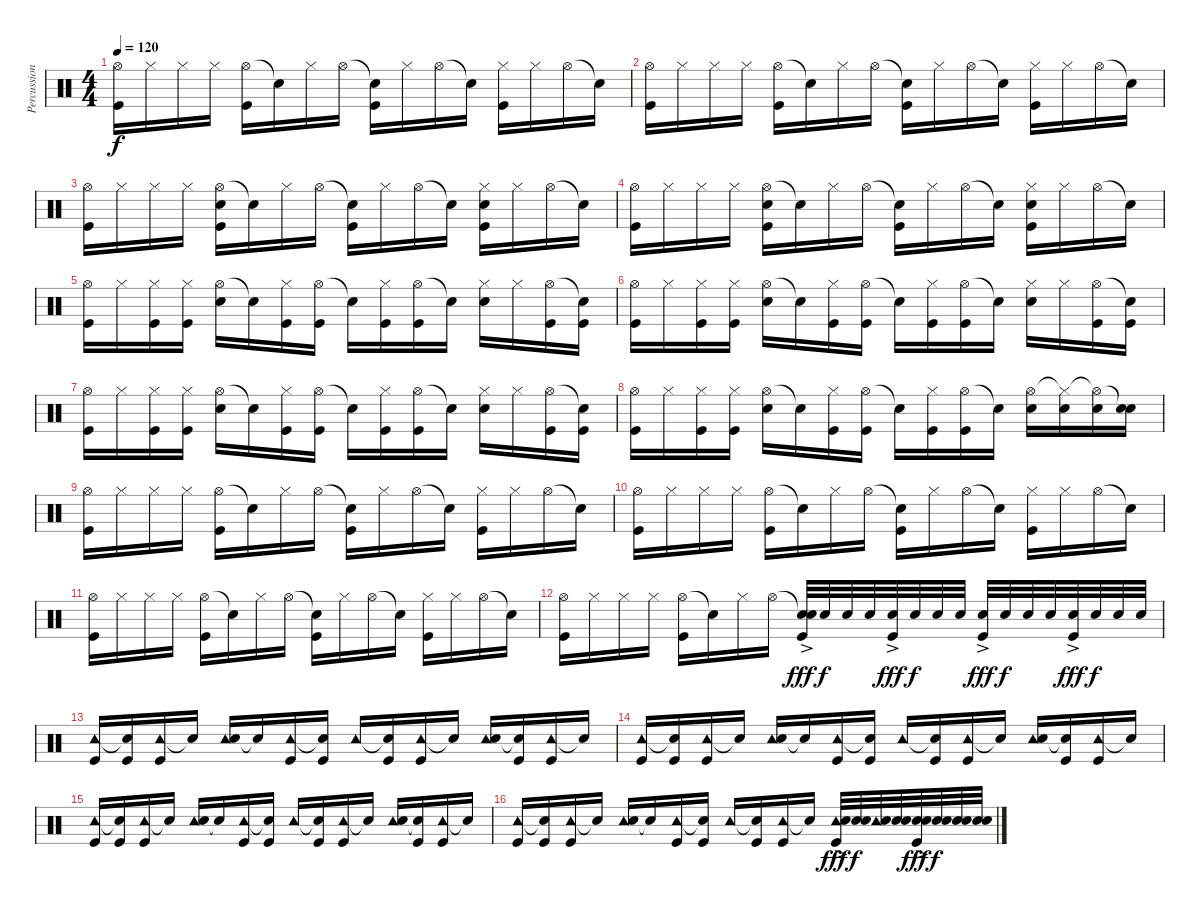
\track ("Percussion" "Percussion") {instrument percussion}
\staff {score}
\articulation defaults
\ts (4 4)
\tempo 120
\clef neutral
\ks c
("Hi-Hat (open)" "Kick (hit)").16{dy f} "Hi-Hat (closed)".16 "Hi-Hat (closed)".16 "Hi-Hat (closed)".16 ("Hi-Hat (open)" "Kick (hit)").16 "Snare (hit)"{t}.16 "Hi-Hat (closed)".16 "Hi-Hat (open)".16 ("Snare (hit)"{t} "Kick (hit)").16 "Hi-Hat (closed)".16 "Hi-Hat (open)".16 "Snare (hit)"{t}.16 ("Hi-Hat (closed)" "Kick (hit)").16 "Hi-Hat (closed)".16 "Hi-Hat (open)".16 "Snare (hit)"{t}.16 |
("Hi-Hat (open)" "Kick (hit)").16 "Hi-Hat (closed)".16 "Hi-Hat (closed)".16 "Hi-Hat (closed)".16 ("Hi-Hat (open)" "Kick (hit)").16 "Snare (hit)"{t}.16 "Hi-Hat (closed)".16 "Hi-Hat (open)".16 ("Snare (hit)"{t} "Kick (hit)").16 "Hi-Hat (closed)".16 "Hi-Hat (open)".16 "Snare (hit)"{t}.16 ("Hi-Hat (closed)" "Kick (hit)").16 "Hi-Hat (closed)".16 "Hi-Hat (open)".16 "Snare (hit)"{t}.16 |
("Hi-Hat (open)" "Kick (hit)").16 "Hi-Hat (closed)".16 "Hi-Hat (closed)".16 "Hi-Hat (closed)".16 ("Hi-Hat (open)" "Electric Snare (hit)" "Kick (hit)").16 "Snare (hit)"{t}.16 "Hi-Hat (closed)".16 "Hi-Hat (open)".16 ("Snare (hit)"{t} "Kick (hit)").16 "Hi-Hat (closed)".16 "Hi-Hat (open)".16 "Snare (hit)"{t}.16 ("Hi-Hat (closed)" "Electric Snare (hit)" "Kick (hit)").16 "Hi-Hat (closed)".16 "Hi-Hat (open)".16 "Snare (hit)"{t}.16 |
("Hi-Hat (open)" "Kick (hit)").16 "Hi-Hat (closed)".16 "Hi-Hat (closed)".16 "Hi-Hat (closed)".16 ("Hi-Hat (open)" "Electric Snare (hit)" "Kick (hit)").16 "Snare (hit)"{t}.16 "Hi-Hat (closed)".16 "Hi-Hat (open)".16 ("Snare (hit)"{t} "Kick (hit)").16 "Hi-Hat (closed)".16 "Hi-Hat (open)".16 "Snare (hit)"{t}.16 ("Hi-Hat (closed)" "Electric Snare (hit)" "Kick (hit)").16 "Hi-Hat (closed)".16 "Hi-Hat (open)".16 "Snare (hit)"{t}.16 |
("Hi-Hat (open)" "Kick (hit)").16 "Hi-Hat (closed)".16 ("Hi-Hat (closed)" "Kick (hit)").16 ("Hi-Hat (closed)" "Kick (hit)").16 ("Hi-Hat (open)" "Electric Snare (hit)").16 "Snare (hit)"{t}.16 ("Hi-Hat (closed)" "Kick (hit)").16 ("Hi-Hat (open)" "Kick (hit)").16 "Snare (hit)"{t}.16 ("Hi-Hat (closed)" "Kick (hit)").16 ("Hi-Hat (open)" "Kick (hit)").16 "Snare (hit)"{t}.16 ("Hi-Hat (closed)" "Electric Snare (hit)").16 "Hi-Hat (closed)".16 ("Hi-Hat (open)" "Kick (hit)").16 ("Snare (hit)"{t} "Kick (hit)").16 |
("Hi-Hat (open)" "Kick (hit)").16 "Hi-Hat (closed)".16 ("Hi-Hat (closed)" "Kick (hit)").16 ("Hi-Hat (closed)" "Kick (hit)").16 ("Hi-Hat (open)" "Electric Snare (hit)").16 "Snare (hit)"{t}.16 ("Hi-Hat (closed)" "Kick (hit)").16 ("Hi-Hat (open)" "Kick (hit)").16 "Snare (hit)"{t}.16 ("Hi-Hat (closed)" "Kick (hit)").16 ("Hi-Hat (open)" "Kick (hit)").16 "Snare (hit)"{t}.16 ("Hi-Hat (closed)" "Electric Snare (hit)").16 "Hi-Hat (closed)".16 ("Hi-Hat (open)" "Kick (hit)").16 ("Snare (hit)"{t} "Kick (hit)").16 |
("Hi-Hat (open)" "Kick (hit)").16 "Hi-Hat (closed)".16 ("Hi-Hat (closed)" "Kick (hit)").16 ("Hi-Hat (closed)" "Kick (hit)").16 ("Hi-Hat (open)" "Electric Snare (hit)").16 "Snare (hit)"{t}.16 ("Hi-Hat (closed)" "Kick (hit)").16 ("Hi-Hat (open)" "Kick (hit)").16 "Snare (hit)"{t}.16 ("Hi-Hat (closed)" "Kick (hit)").16 ("Hi-Hat (open)" "Kick (hit)").16 "Snare (hit)"{t}.16 ("Hi-Hat (closed)" "Electric Snare (hit)").16 "Hi-Hat (closed)".16 ("Hi-Hat (open)" "Kick (hit)").16 ("Snare (hit)"{t} "Kick (hit)").16 |
("Hi-Hat (open)" "Kick (hit)").16 "Hi-Hat (closed)".16 ("Hi-Hat (closed)" "Kick (hit)").16 ("Hi-Hat (closed)" "Kick (hit)").16 ("Hi-Hat (open)" "Electric Snare (hit)").16 "Snare (hit)"{t}.16 ("Hi-Hat (closed)" "Kick (hit)").16 ("Hi-Hat (open)" "Kick (hit)").16 "Snare (hit)"{t}.16 ("Hi-Hat (closed)" "Kick (hit)").16 ("Hi-Hat (open)" "Kick (hit)").16 "Snare (hit)"{t}.16 ("Hi-Hat (open)" "Electric Snare (hit)").16 ("Hi-Hat (closed)"{t} "Electric Snare (hit)").16 ("Hi-Hat (open)"{t} "Electric Snare (hit)").16 ("Snare (hit)"{t} "Electric Snare (hit)").16 |
("Hi-Hat (open)" "Kick (hit)").16 "Hi-Hat (closed)".16 "Hi-Hat (closed)".16 "Hi-Hat (closed)".16 ("Hi-Hat (open)" "Kick (hit)").16 "Snare (hit)"{t}.16 "Hi-Hat (closed)".16 "Hi-Hat (open)".16 ("Snare (hit)"{t} "Kick (hit)").16 "Hi-Hat (closed)".16 "Hi-Hat (open)".16 "Snare (hit)"{t}.16 ("Hi-Hat (closed)" "Kick (hit)").16 "Hi-Hat (closed)".16 "Hi-Hat (open)".16 "Snare (hit)"{t}.16 |
("Hi-Hat (open)" "Kick (hit)").16 "Hi-Hat (closed)".16 "Hi-Hat (closed)".16 "Hi-Hat (closed)".16 ("Hi-Hat (open)" "Kick (hit)").16 "Snare (hit)"{t}.16 "Hi-Hat (closed)".16 "Hi-Hat (open)".16 ("Snare (hit)"{t} "Kick (hit)").16 "Hi-Hat (closed)".16 "Hi-Hat (open)".16 "Snare (hit)"{t}.16 ("Hi-Hat (closed)" "Kick (hit)").16 "Hi-Hat (closed)".16 "Hi-Hat (open)".16 "Snare (hit)"{t}.16 |
("Hi-Hat (open)" "Kick (hit)").16 "Hi-Hat (closed)".16 "Hi-Hat (closed)".16 "Hi-Hat (closed)".16 ("Hi-Hat (open)" "Kick (hit)").16 "Snare (hit)"{t}.16 "Hi-Hat (closed)".16 "Hi-Hat (open)".16 ("Snare (hit)"{t} "Kick (hit)").16 "Hi-Hat (closed)".16 "Hi-Hat (open)".16 "Snare (hit)"{t}.16 ("Hi-Hat (closed)" "Kick (hit)").16 "Hi-Hat (closed)".16 "Hi-Hat (open)".16 "Snare (hit)"{t}.16 |
("Hi-Hat (open)" "Kick (hit)").16 "Hi-Hat (closed)".16 "Hi-Hat (closed)".16 "Hi-Hat (closed)".16 ("Hi-Hat (open)" "Kick (hit)").16 "Snare (hit)"{t}.16 "Hi-Hat (closed)".16 "Hi-Hat (open)".16 ("Snare (hit)"{t} "Electric Snare (hit)"{ac} "Kick (hit)").32{dy fff} "Electric Snare (hit)".32{dy f} "Electric Snare (hit)".32 "Electric Snare (hit)".32 ("Electric Snare (hit)"{ac} "Kick (hit)").32{dy fff} "Electric Snare (hit)".32{dy f} "Electric Snare (hit)".32 "Electric Snare (hit)".32 ("Electric Snare (hit)"{ac} "Kick (hit)").32{dy fff} "Electric Snare (hit)".32{dy f} "Electric Snare (hit)".32 "Electric Snare (hit)".32 ("Electric Snare (hit)"{ac} "Kick (hit)").32{dy fff} "Electric Snare (hit)".32{dy f} "Electric Snare (hit)".32 "Electric Snare (hit)".32 |
("Tambourine (hit)" "Kick (hit)").16 ("Snare (hit)"{t} "Kick (hit)").16 ("Tambourine (hit)" "Kick (hit)").16 "Snare (hit)"{t}.16 ("Tambourine (hit)" "Electric Snare (hit)").16 "Snare (hit)"{t}.16 ("Tambourine (hit)" "Kick (hit)").16 ("Snare (hit)"{t} "Kick (hit)").16 "Tambourine (hit)".16 ("Snare (hit)"{t} "Kick (hit)").16 ("Tambourine (hit)" "Kick (hit)").16 "Snare (hit)"{t}.16 ("Tambourine (hit)" "Electric Snare (hit)").16 ("Snare (hit)"{t} "Kick (hit)").16 ("Tambourine (hit)" "Kick (hit)").16 "Snare (hit)"{t}.16 |
("Tambourine (hit)" "Kick (hit)").16 ("Snare (hit)"{t} "Kick (hit)").16 ("Tambourine (hit)" "Kick (hit)").16 "Snare (hit)"{t}.16 ("Tambourine (hit)" "Electric Snare (hit)").16 "Snare (hit)"{t}.16 ("Tambourine (hit)" "Kick (hit)").16 ("Snare (hit)"{t} "Kick (hit)").16 "Tambourine (hit)".16 ("Snare (hit)"{t} "Kick (hit)").16 ("Tambourine (hit)" "Kick (hit)").16 "Snare (hit)"{t}.16 ("Tambourine (hit)" "Electric Snare (hit)").16 ("Snare (hit)"{t} "Kick (hit)").16 ("Tambourine (hit)" "Kick (hit)").16 "Snare (hit)"{t}.16 |
("Tambourine (hit)" "Kick (hit)").16 ("Snare (hit)"{t} "Kick (hit)").16 ("Tambourine (hit)" "Kick (hit)").16 "Snare (hit)"{t}.16 ("Tambourine (hit)" "Electric Snare (hit)").16 "Snare (hit)"{t}.16 ("Tambourine (hit)" "Kick (hit)").16 ("Snare (hit)"{t} "Kick (hit)").16 "Tambourine (hit)".16 ("Snare (hit)"{t} "Kick (hit)").16 ("Tambourine (hit)" "Kick (hit)").16 "Snare (hit)"{t}.16 ("Tambourine (hit)" "Electric Snare (hit)").16 ("Snare (hit)"{t} "Kick (hit)").16 ("Tambourine (hit)" "Kick (hit)").16 "Snare (hit)"{t}.16 |
("Tambourine (hit)" "Kick (hit)").16 ("Snare (hit)"{t} "Kick (hit)").16 ("Tambourine (hit)" "Kick (hit)").16 "Snare (hit)"{t}.16 ("Tambourine (hit)" "Electric Snare (hit)").16 "Snare (hit)"{t}.16 ("Tambourine (hit)" "Kick (hit)").16 ("Snare (hit)"{t} "Kick (hit)").16 "Tambourine (hit)".16 ("Snare (hit)"{t} "Kick (hit)").16 ("Tambourine (hit)" "Kick (hit)").16 "Snare (hit)"{t}.16 ("Tambourine (hit)" "Electric Snare (hit)"{ac} "Kick (hit)").32{dy fff} ("Snare (hit)"{t} "Electric Snare (hit)").32{dy f} ("Tambourine (hit)"{t} "Electric Snare (hit)").32 ("Snare (hit)"{t} "Electric Snare (hit)").32 ("Snare (hit)"{t} "Electric Snare (hit)"{ac} "Kick (hit)").32{dy fff} ("Snare (hit)"{t} "Electric Snare (hit)").32{dy f} ("Snare (hit)"{t} "Electric Snare (hit)").32 ("Snare (hit)"{t} "Electric Snare (hit)").32
